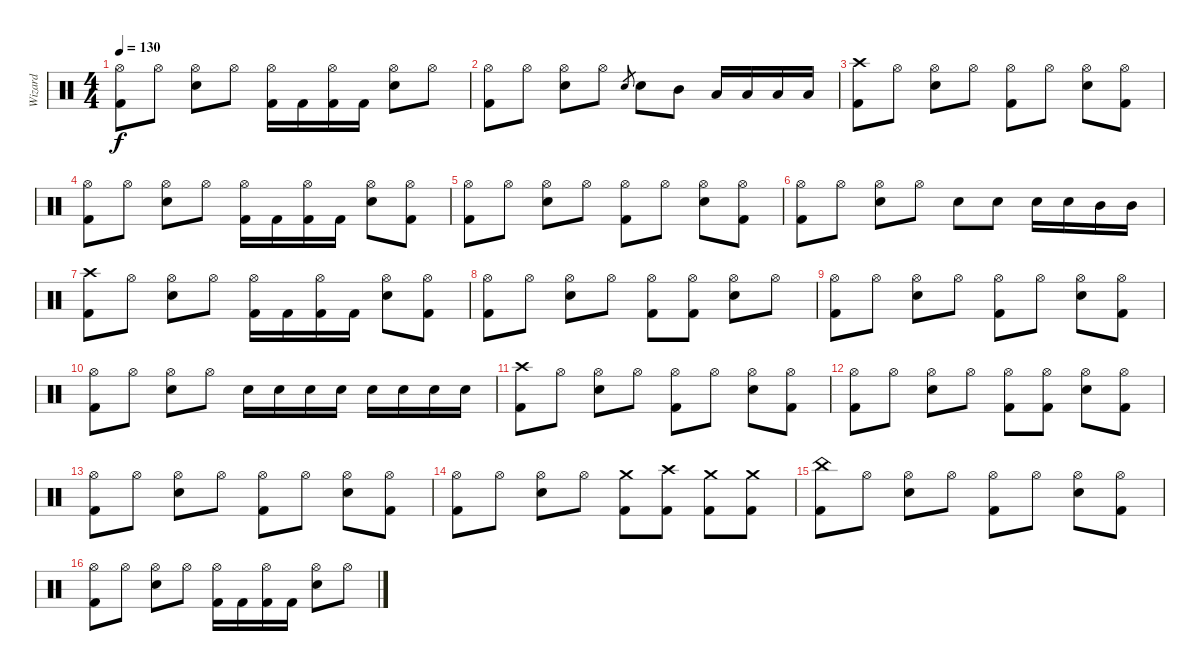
\track ("Wizard" "Wizard") {instrument percussion}
\staff {score}
\articulation defaults
\ts (4 4)
\tempo 130
\clef neutral
\ks c
("Hi-Hat (open)" "Kick (hit) 2").8{dy f} "Hi-Hat (open)".8 ("Hi-Hat (open)" "Snare (hit) 2").8 "Hi-Hat (open)".8 ("Hi-Hat (open)" "Kick (hit) 2").16 "Kick (hit) 2".16 ("Hi-Hat (open)" "Kick (hit) 2").16 "Kick (hit) 2".16 ("Hi-Hat (open)" "Snare (hit) 2").8 "Hi-Hat (open)".8 |
("Hi-Hat (open)" "Kick (hit) 2").8 "Hi-Hat (open)".8 ("Hi-Hat (open)" "Snare (hit) 2").8 "Hi-Hat (open)".8 "Snare (hit) 2".8{gr} "Snare (hit) 2".8 "Mid Tom (hit)".8 "Low Tom (hit)".16 "Low Tom (hit)".16 "Low Tom (hit)".16 "Low Tom (hit)".16 |
("Crash high (hit)" "Kick (hit) 2").8 "Hi-Hat (open)".8 ("Hi-Hat (open)" "Snare (hit) 2").8 "Hi-Hat (open)".8 ("Hi-Hat (open)" "Kick (hit) 2").8 "Hi-Hat (open)".8 ("Hi-Hat (open)" "Snare (hit) 2").8 ("Hi-Hat (open)" "Kick (hit) 2").8 |
("Hi-Hat (open)" "Kick (hit) 2").8 "Hi-Hat (open)".8 ("Hi-Hat (open)" "Snare (hit) 2").8 "Hi-Hat (open)".8 ("Hi-Hat (open)" "Kick (hit) 2").16 "Kick (hit) 2".16 ("Hi-Hat (open)" "Kick (hit) 2").16 "Kick (hit) 2".16 ("Hi-Hat (open)" "Snare (hit) 2").8 ("Hi-Hat (open)" "Kick (hit) 2").8 |
("Hi-Hat (open)" "Kick (hit) 2").8 "Hi-Hat (open)".8 ("Hi-Hat (open)" "Snare (hit) 2").8 "Hi-Hat (open)".8 ("Hi-Hat (open)" "Kick (hit) 2").8 "Hi-Hat (open)".8 ("Hi-Hat (open)" "Snare (hit) 2").8 ("Hi-Hat (open)" "Kick (hit) 2").8 |
("Hi-Hat (open)" "Kick (hit) 2").8 "Hi-Hat (open)".8 ("Hi-Hat (open)" "Snare (hit) 2").8 "Hi-Hat (open)".8 "Snare (hit) 2".8 "Snare (hit) 2".8 "Snare (hit) 2".16 "Snare (hit) 2".16 "Mid Tom (hit)".16 "Mid Tom (hit)".16 |
("Crash high (hit)" "Kick (hit) 2").8 "Hi-Hat (open)".8 ("Hi-Hat (open)" "Snare (hit) 2").8 "Hi-Hat (open)".8 ("Hi-Hat (open)" "Kick (hit) 2").16 "Kick (hit) 2".16 ("Hi-Hat (open)" "Kick (hit) 2").16 "Kick (hit) 2".16 ("Hi-Hat (open)" "Snare (hit) 2").8 ("Hi-Hat (open)" "Kick (hit) 2").8 |
("Hi-Hat (open)" "Kick (hit) 2").8 "Hi-Hat (open)".8 ("Hi-Hat (open)" "Snare (hit) 2").8 "Hi-Hat (open)".8 ("Hi-Hat (open)" "Kick (hit) 2").8 ("Hi-Hat (open)" "Kick (hit) 2").8 ("Hi-Hat (open)" "Snare (hit) 2").8 "Hi-Hat (open)".8 |
("Hi-Hat (open)" "Kick (hit) 2").8 "Hi-Hat (open)".8 ("Hi-Hat (open)" "Snare (hit) 2").8 "Hi-Hat (open)".8 ("Hi-Hat (open)" "Kick (hit) 2").8 "Hi-Hat (open)".8 ("Hi-Hat (open)" "Snare (hit) 2").8 ("Hi-Hat (open)" "Kick (hit) 2").8 |
("Hi-Hat (open)" "Kick (hit) 2").8 "Hi-Hat (open)".8 ("Hi-Hat (open)" "Snare (hit) 2").8 "Hi-Hat (open)".8 "Snare (hit) 2".16 "Snare (hit) 2".16 "Snare (hit) 2".16 "Snare (hit) 2".16 "Snare (hit) 2".16 "Snare (hit) 2".16 "Snare (hit) 2".16 "Snare (hit) 2".16 |
("Crash high (hit)" "Kick (hit) 2").8 "Hi-Hat (open)".8 ("Hi-Hat (open)" "Snare (hit) 2").8 "Hi-Hat (open)".8 ("Hi-Hat (open)" "Kick (hit) 2").8 "Hi-Hat (open)".8 ("Hi-Hat (open)" "Snare (hit) 2").8 ("Hi-Hat (open)" "Kick (hit) 2").8 |
("Hi-Hat (open)" "Kick (hit) 2").8 "Hi-Hat (open)".8 ("Hi-Hat (open)" "Snare (hit) 2").8 "Hi-Hat (open)".8 ("Hi-Hat (open)" "Kick (hit) 2").8 ("Hi-Hat (open)" "Kick (hit) 2").8 ("Hi-Hat (open)" "Snare (hit) 2").8 ("Hi-Hat (open)" "Kick (hit) 2").8 |
("Hi-Hat (open)" "Kick (hit) 2").8 "Hi-Hat (open)".8 ("Hi-Hat (open)" "Snare (hit) 2").8 "Hi-Hat (open)".8 ("Hi-Hat (open)" "Kick (hit) 2").8 "Hi-Hat (open)".8 ("Hi-Hat (open)" "Snare (hit) 2").8 ("Hi-Hat (open)" "Kick (hit) 2").8 |
("Hi-Hat (open)" "Kick (hit) 2").8 "Hi-Hat (open)".8 ("Hi-Hat (open)" "Snare (hit) 2").8 "Hi-Hat (open)".8 ("Crash medium (hit)" "Kick (hit) 2").8 ("Crash high (hit)" "Kick (hit) 2").8 ("Crash medium (hit)" "Kick (hit) 2").8 ("Crash medium (hit)" "Kick (hit) 2").8 |
("China (hit)" "Kick (hit) 2").8 "Hi-Hat (open)".8 ("Hi-Hat (open)" "Snare (hit) 2").8 "Hi-Hat (open)".8 ("Hi-Hat (open)" "Kick (hit) 2").8 "Hi-Hat (open)".8 ("Hi-Hat (open)" "Snare (hit) 2").8 ("Hi-Hat (open)" "Kick (hit) 2").8 |
("Hi-Hat (open)" "Kick (hit) 2").8 "Hi-Hat (open)".8 ("Hi-Hat (open)" "Snare (hit) 2").8 "Hi-Hat (open)".8 ("Hi-Hat (open)" "Kick (hit) 2").16 "Kick (hit) 2".16 ("Hi-Hat (open)" "Kick (hit) 2").16 "Kick (hit) 2".16 ("Hi-Hat (open)" "Snare (hit) 2").8 "Hi-Hat (open)".8
